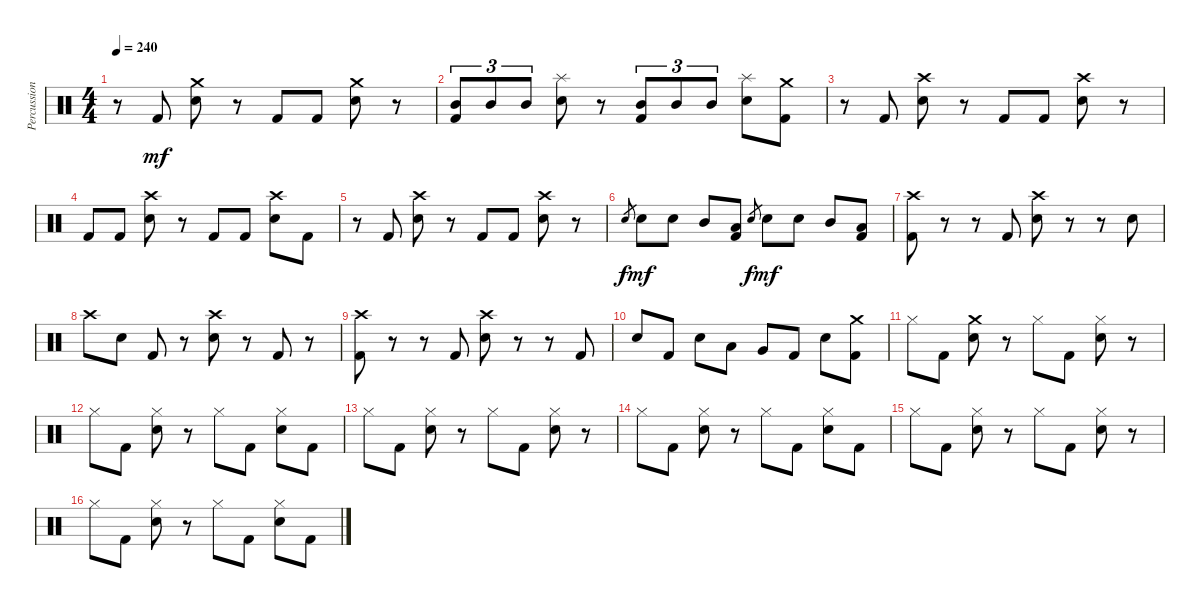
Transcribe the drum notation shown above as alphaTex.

\track ("Percussion" "Percussion") {instrument percussion}
\staff {score}
\articulation defaults
\ts (4 4)
\tempo 240
\clef neutral
\ks c
r.8{dy mf} "Kick (hit) 2".8 ("Electric Snare (hit)" "Crash medium (hit)").8 r.8 "Kick (hit) 2".8 "Kick (hit) 2".8 ("Electric Snare (hit)" "Crash medium (hit)").8 r.8 |
("Mid Tom (hit)" "Kick (hit) 2").8{tu (3 2)} "Mid Tom (hit)".8{tu (3 2)} "Mid Tom (hit)".8{tu (3 2)} ("Electric Snare (hit)" "Splash (hit)").8 r.8 ("Kick (hit) 2" "Mid Tom (hit)").8{tu (3 2)} "Mid Tom (hit)".8{tu (3 2)} "Mid Tom (hit)".8{tu (3 2)} ("Electric Snare (hit)" "Splash (hit)").8 ("Kick (hit) 2" "Crash medium (hit)").8 |
r.8 "Kick (hit) 2".8 ("Electric Snare (hit)" "Crash high (hit)").8 r.8 "Kick (hit) 2".8 "Kick (hit) 2".8 ("Electric Snare (hit)" "Crash high (hit)").8 r.8 |
"Kick (hit) 2".8 "Kick (hit) 2".8 ("Electric Snare (hit)" "Crash high (hit)").8 r.8 "Kick (hit) 2".8 "Kick (hit) 2".8 ("Electric Snare (hit)" "Crash high (hit)").8 "Kick (hit) 2".8 |
r.8 "Kick (hit) 2".8 ("Electric Snare (hit)" "Crash high (hit)").8 r.8 "Kick (hit) 2".8 "Kick (hit) 2".8 ("Electric Snare (hit)" "Crash high (hit)").8 r.8 |
"Electric Snare (hit)".8{gr dy f} "Electric Snare (hit)".8{dy mf} "Electric Snare (hit)".8 "Mid Tom (hit)".8 ("Low Tom (hit)" "Kick (hit) 2").8 "Electric Snare (hit)".8{gr dy f} "Electric Snare (hit)".8{dy mf} "Electric Snare (hit)".8 "Mid Tom (hit)".8 ("Low Tom (hit)" "Kick (hit) 2").8 |
("Kick (hit) 2" "Crash high (hit)").8 r.8 r.8 "Kick (hit) 2".8 ("Electric Snare (hit)" "Crash high (hit)").8 r.8 r.8 "Electric Snare (hit)".8 |
"Crash high (hit)".8 "Electric Snare (hit)".8 "Kick (hit) 2".8 r.8 ("Electric Snare (hit)" "Crash high (hit)").8 r.8 "Kick (hit) 2".8 r.8 |
("Kick (hit) 2" "Crash high (hit)").8 r.8 r.8 "Kick (hit) 2".8 ("Electric Snare (hit)" "Crash high (hit)").8 r.8 r.8 "Kick (hit) 2".8 |
"Electric Snare (hit)".8 "Kick (hit) 2".8 "Electric Snare (hit)".8 "Low Tom (hit)".8 "Very Low Tom (hit)".8 "Kick (hit) 2".8 "Electric Snare (hit)".8 ("Kick (hit) 2" "Crash medium (hit)").8 |
"Hi-Hat (closed)".8 "Kick (hit) 2".8 ("Crash medium (hit)" "Electric Snare (hit)").8 r.8 "Hi-Hat (closed)".8 "Kick (hit) 2".8 ("Electric Snare (hit)" "Hi-Hat (closed)").8 r.8 |
"Hi-Hat (closed)".8 "Kick (hit) 2".8 ("Electric Snare (hit)" "Hi-Hat (closed)").8 r.8 "Hi-Hat (closed)".8 "Kick (hit) 2".8 ("Electric Snare (hit)" "Hi-Hat (closed)").8 "Kick (hit) 2".8 |
"Hi-Hat (closed)".8 "Kick (hit) 2".8 ("Electric Snare (hit)" "Hi-Hat (closed)").8 r.8 "Hi-Hat (closed)".8 "Kick (hit) 2".8 ("Hi-Hat (closed)" "Electric Snare (hit)").8 r.8 |
"Hi-Hat (closed)".8 "Kick (hit) 2".8 ("Electric Snare (hit)" "Hi-Hat (closed)").8 r.8 "Hi-Hat (closed)".8 "Kick (hit) 2".8 ("Electric Snare (hit)" "Hi-Hat (closed)").8 "Kick (hit) 2".8 |
"Hi-Hat (closed)".8 "Kick (hit) 2".8 ("Electric Snare (hit)" "Hi-Hat (closed)").8 r.8 "Hi-Hat (closed)".8 "Kick (hit) 2".8 ("Hi-Hat (closed)" "Electric Snare (hit)").8 r.8 |
"Hi-Hat (closed)".8 "Kick (hit) 2".8 ("Electric Snare (hit)" "Hi-Hat (closed)").8 r.8 "Hi-Hat (closed)".8 "Kick (hit) 2".8 ("Electric Snare (hit)" "Hi-Hat (closed)").8 "Kick (hit) 2".8
